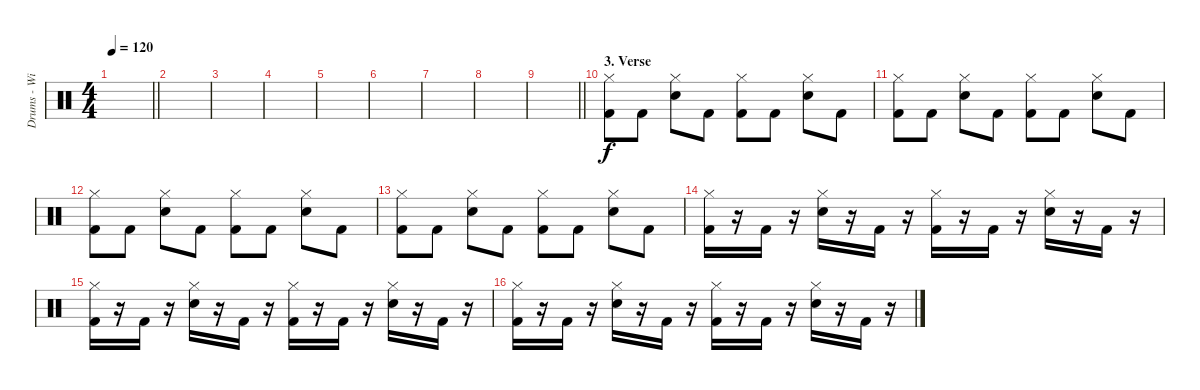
\track ("Drums - Willi Wurm" "Drums - Wi") {instrument percussion}
\staff {score}
\articulation defaults
\ts (4 4)
\tempo 120
\clef neutral
\barLineRight lightlight
\ks c
|
|
|
|
|
|
|
|
\barLineRight lightlight
|
\section ("" "3. Verse")
("Hi-Hat (closed)" "Kick (hit) 2").8 "Kick (hit) 2".8 ("Hi-Hat (closed)" "Snare (hit) 2").8 "Kick (hit) 2".8 ("Hi-Hat (closed)" "Kick (hit) 2").8 "Kick (hit) 2".8 ("Hi-Hat (closed)" "Snare (hit) 2").8 "Kick (hit) 2".8 |
("Hi-Hat (closed)" "Kick (hit) 2").8 "Kick (hit) 2".8 ("Hi-Hat (closed)" "Snare (hit) 2").8 "Kick (hit) 2".8 ("Hi-Hat (closed)" "Kick (hit) 2").8 "Kick (hit) 2".8 ("Hi-Hat (closed)" "Snare (hit) 2").8 "Kick (hit) 2".8 |
("Hi-Hat (closed)" "Kick (hit) 2").8 "Kick (hit) 2".8 ("Hi-Hat (closed)" "Snare (hit) 2").8 "Kick (hit) 2".8 ("Hi-Hat (closed)" "Kick (hit) 2").8 "Kick (hit) 2".8 ("Hi-Hat (closed)" "Snare (hit) 2").8 "Kick (hit) 2".8 |
("Hi-Hat (closed)" "Kick (hit) 2").8 "Kick (hit) 2".8 ("Hi-Hat (closed)" "Snare (hit) 2").8 "Kick (hit) 2".8 ("Hi-Hat (closed)" "Kick (hit) 2").8 "Kick (hit) 2".8 ("Hi-Hat (closed)" "Snare (hit) 2").8 "Kick (hit) 2".8 |
("Hi-Hat (closed)" "Kick (hit) 2").16 r.16 "Kick (hit) 2".16 r.16 ("Hi-Hat (closed)" "Snare (hit) 2").16 r.16 "Kick (hit) 2".16 r.16 ("Hi-Hat (closed)" "Kick (hit) 2").16 r.16 "Kick (hit) 2".16 r.16 ("Hi-Hat (closed)" "Snare (hit) 2").16 r.16 "Kick (hit) 2".16 r.16 |
("Hi-Hat (closed)" "Kick (hit) 2").16 r.16 "Kick (hit) 2".16 r.16 ("Hi-Hat (closed)" "Snare (hit) 2").16 r.16 "Kick (hit) 2".16 r.16 ("Hi-Hat (closed)" "Kick (hit) 2").16 r.16 "Kick (hit) 2".16 r.16 ("Hi-Hat (closed)" "Snare (hit) 2").16 r.16 "Kick (hit) 2".16 r.16 |
("Hi-Hat (closed)" "Kick (hit) 2").16 r.16 "Kick (hit) 2".16 r.16 ("Hi-Hat (closed)" "Snare (hit) 2").16 r.16 "Kick (hit) 2".16 r.16 ("Hi-Hat (closed)" "Kick (hit) 2").16 r.16 "Kick (hit) 2".16 r.16 ("Hi-Hat (closed)" "Snare (hit) 2").16 r.16 "Kick (hit) 2".16 r.16
